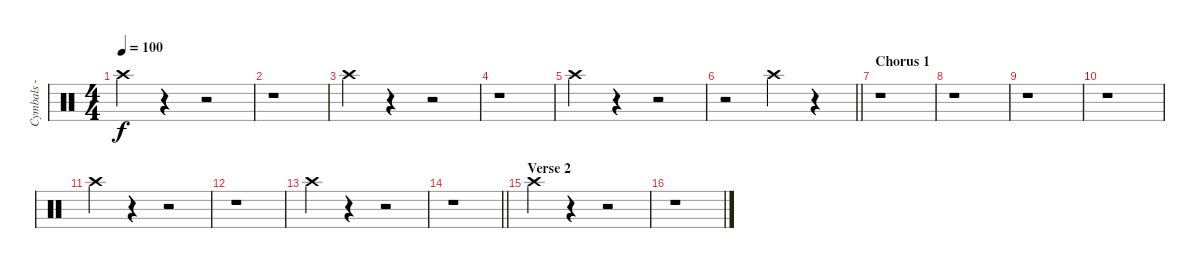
\track ("Cymbals - crash - right" "Cymbals - ") {instrument percussion}
\staff {score}
\articulation defaults
\ts (4 4)
\tempo 100
\clef neutral
\ks c "Crash high (hit)".4{dy f}
r.4 r.2 |
r.1 |
"Crash high (hit)".4 r.4 r.2 |
r.1 |
"Crash high (hit)".4 r.4 r.2 |
\barLineRight lightlight
r.2 "Crash high (hit)".4 r.4 |
\section ("" "Chorus 1")
r.1 |
r.1 |
r.1 |
r.1 |
"Crash high (hit)".4 r.4 r.2 |
r.1 |
"Crash high (hit)".4 r.4 r.2 |
\barLineRight lightlight
r.1 |
\section ("" "Verse 2")
"Crash high (hit)".4{volume 10} r.4 r.2 |
r.1
